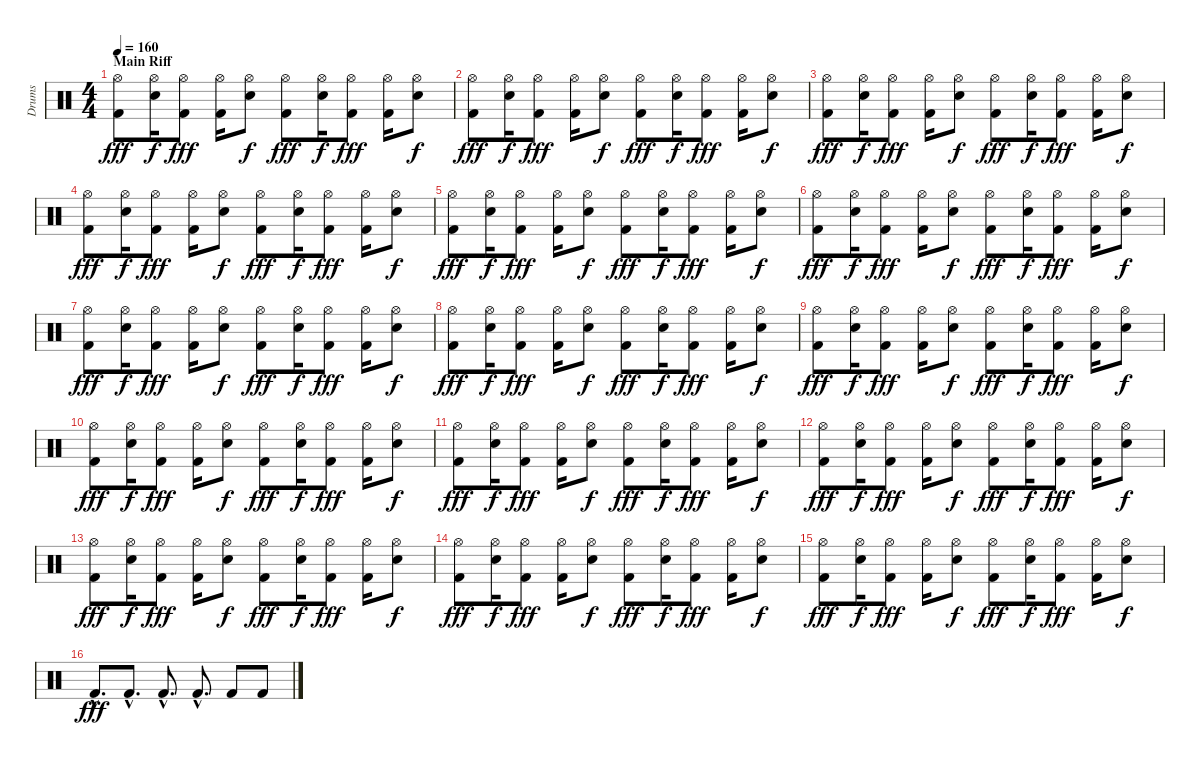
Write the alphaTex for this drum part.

\track ("Drums" "Drums") {instrument percussion}
\staff {score}
\articulation defaults
\ts (4 4)
\section ("" "Main Riff")
\tempo 160
\clef neutral
\ks c
("Hi-Hat (open)" "Kick (hit) 2").8{dy fff} ("Hi-Hat (open)" "Electric Snare (hit)").16{dy f} ("Hi-Hat (open)" "Kick (hit) 2").8{dy fff} ("Hi-Hat (open)" "Kick (hit) 2").16 ("Hi-Hat (open)" "Electric Snare (hit)").8{dy f} ("Hi-Hat (open)" "Kick (hit) 2").8{dy fff} ("Hi-Hat (open)" "Electric Snare (hit)").16{dy f} ("Hi-Hat (open)" "Kick (hit) 2").8{dy fff} ("Hi-Hat (open)" "Kick (hit) 2").16 ("Hi-Hat (open)" "Electric Snare (hit)").8{dy f} |
("Hi-Hat (open)" "Kick (hit) 2").8{dy fff} ("Hi-Hat (open)" "Electric Snare (hit)").16{dy f} ("Hi-Hat (open)" "Kick (hit) 2").8{dy fff} ("Hi-Hat (open)" "Kick (hit) 2").16 ("Hi-Hat (open)" "Electric Snare (hit)").8{dy f} ("Hi-Hat (open)" "Kick (hit) 2").8{dy fff} ("Hi-Hat (open)" "Electric Snare (hit)").16{dy f} ("Hi-Hat (open)" "Kick (hit) 2").8{dy fff} ("Hi-Hat (open)" "Kick (hit) 2").16 ("Hi-Hat (open)" "Electric Snare (hit)").8{dy f} |
("Hi-Hat (open)" "Kick (hit) 2").8{dy fff} ("Hi-Hat (open)" "Electric Snare (hit)").16{dy f} ("Hi-Hat (open)" "Kick (hit) 2").8{dy fff} ("Hi-Hat (open)" "Kick (hit) 2").16 ("Hi-Hat (open)" "Electric Snare (hit)").8{dy f} ("Hi-Hat (open)" "Kick (hit) 2").8{dy fff} ("Hi-Hat (open)" "Electric Snare (hit)").16{dy f} ("Hi-Hat (open)" "Kick (hit) 2").8{dy fff} ("Hi-Hat (open)" "Kick (hit) 2").16 ("Hi-Hat (open)" "Electric Snare (hit)").8{dy f} |
("Hi-Hat (open)" "Kick (hit) 2").8{dy fff} ("Hi-Hat (open)" "Electric Snare (hit)").16{dy f} ("Hi-Hat (open)" "Kick (hit) 2").8{dy fff} ("Hi-Hat (open)" "Kick (hit) 2").16 ("Hi-Hat (open)" "Electric Snare (hit)").8{dy f} ("Hi-Hat (open)" "Kick (hit) 2").8{dy fff} ("Hi-Hat (open)" "Electric Snare (hit)").16{dy f} ("Hi-Hat (open)" "Kick (hit) 2").8{dy fff} ("Hi-Hat (open)" "Kick (hit) 2").16 ("Hi-Hat (open)" "Electric Snare (hit)").8{dy f} |
("Hi-Hat (open)" "Kick (hit) 2").8{dy fff} ("Hi-Hat (open)" "Electric Snare (hit)").16{dy f} ("Hi-Hat (open)" "Kick (hit) 2").8{dy fff} ("Hi-Hat (open)" "Kick (hit) 2").16 ("Hi-Hat (open)" "Electric Snare (hit)").8{dy f} ("Hi-Hat (open)" "Kick (hit) 2").8{dy fff} ("Hi-Hat (open)" "Electric Snare (hit)").16{dy f} ("Hi-Hat (open)" "Kick (hit) 2").8{dy fff} ("Hi-Hat (open)" "Kick (hit) 2").16 ("Hi-Hat (open)" "Electric Snare (hit)").8{dy f} |
("Hi-Hat (open)" "Kick (hit) 2").8{dy fff} ("Hi-Hat (open)" "Electric Snare (hit)").16{dy f} ("Hi-Hat (open)" "Kick (hit) 2").8{dy fff} ("Hi-Hat (open)" "Kick (hit) 2").16 ("Hi-Hat (open)" "Electric Snare (hit)").8{dy f} ("Hi-Hat (open)" "Kick (hit) 2").8{dy fff} ("Hi-Hat (open)" "Electric Snare (hit)").16{dy f} ("Hi-Hat (open)" "Kick (hit) 2").8{dy fff} ("Hi-Hat (open)" "Kick (hit) 2").16 ("Hi-Hat (open)" "Electric Snare (hit)").8{dy f} |
("Hi-Hat (open)" "Kick (hit) 2").8{dy fff} ("Hi-Hat (open)" "Electric Snare (hit)").16{dy f} ("Hi-Hat (open)" "Kick (hit) 2").8{dy fff} ("Hi-Hat (open)" "Kick (hit) 2").16 ("Hi-Hat (open)" "Electric Snare (hit)").8{dy f} ("Hi-Hat (open)" "Kick (hit) 2").8{dy fff} ("Hi-Hat (open)" "Electric Snare (hit)").16{dy f} ("Hi-Hat (open)" "Kick (hit) 2").8{dy fff} ("Hi-Hat (open)" "Kick (hit) 2").16 ("Hi-Hat (open)" "Electric Snare (hit)").8{dy f} |
("Hi-Hat (open)" "Kick (hit) 2").8{dy fff} ("Hi-Hat (open)" "Electric Snare (hit)").16{dy f} ("Hi-Hat (open)" "Kick (hit) 2").8{dy fff} ("Hi-Hat (open)" "Kick (hit) 2").16 ("Hi-Hat (open)" "Electric Snare (hit)").8{dy f} ("Hi-Hat (open)" "Kick (hit) 2").8{dy fff} ("Hi-Hat (open)" "Electric Snare (hit)").16{dy f} ("Hi-Hat (open)" "Kick (hit) 2").8{dy fff} ("Hi-Hat (open)" "Kick (hit) 2").16 ("Hi-Hat (open)" "Electric Snare (hit)").8{dy f} |
("Hi-Hat (open)" "Kick (hit) 2").8{dy fff} ("Hi-Hat (open)" "Electric Snare (hit)").16{dy f} ("Hi-Hat (open)" "Kick (hit) 2").8{dy fff} ("Hi-Hat (open)" "Kick (hit) 2").16 ("Hi-Hat (open)" "Electric Snare (hit)").8{dy f} ("Hi-Hat (open)" "Kick (hit) 2").8{dy fff} ("Hi-Hat (open)" "Electric Snare (hit)").16{dy f} ("Hi-Hat (open)" "Kick (hit) 2").8{dy fff} ("Hi-Hat (open)" "Kick (hit) 2").16 ("Hi-Hat (open)" "Electric Snare (hit)").8{dy f} |
("Hi-Hat (open)" "Kick (hit) 2").8{dy fff} ("Hi-Hat (open)" "Electric Snare (hit)").16{dy f} ("Hi-Hat (open)" "Kick (hit) 2").8{dy fff} ("Hi-Hat (open)" "Kick (hit) 2").16 ("Hi-Hat (open)" "Electric Snare (hit)").8{dy f} ("Hi-Hat (open)" "Kick (hit) 2").8{dy fff} ("Hi-Hat (open)" "Electric Snare (hit)").16{dy f} ("Hi-Hat (open)" "Kick (hit) 2").8{dy fff} ("Hi-Hat (open)" "Kick (hit) 2").16 ("Hi-Hat (open)" "Electric Snare (hit)").8{dy f} |
("Hi-Hat (open)" "Kick (hit) 2").8{dy fff} ("Hi-Hat (open)" "Electric Snare (hit)").16{dy f} ("Hi-Hat (open)" "Kick (hit) 2").8{dy fff} ("Hi-Hat (open)" "Kick (hit) 2").16 ("Hi-Hat (open)" "Electric Snare (hit)").8{dy f} ("Hi-Hat (open)" "Kick (hit) 2").8{dy fff} ("Hi-Hat (open)" "Electric Snare (hit)").16{dy f} ("Hi-Hat (open)" "Kick (hit) 2").8{dy fff} ("Hi-Hat (open)" "Kick (hit) 2").16 ("Hi-Hat (open)" "Electric Snare (hit)").8{dy f} |
("Hi-Hat (open)" "Kick (hit) 2").8{dy fff} ("Hi-Hat (open)" "Electric Snare (hit)").16{dy f} ("Hi-Hat (open)" "Kick (hit) 2").8{dy fff} ("Hi-Hat (open)" "Kick (hit) 2").16 ("Hi-Hat (open)" "Electric Snare (hit)").8{dy f} ("Hi-Hat (open)" "Kick (hit) 2").8{dy fff} ("Hi-Hat (open)" "Electric Snare (hit)").16{dy f} ("Hi-Hat (open)" "Kick (hit) 2").8{dy fff} ("Hi-Hat (open)" "Kick (hit) 2").16 ("Hi-Hat (open)" "Electric Snare (hit)").8{dy f} |
("Hi-Hat (open)" "Kick (hit) 2").8{dy fff} ("Hi-Hat (open)" "Electric Snare (hit)").16{dy f} ("Hi-Hat (open)" "Kick (hit) 2").8{dy fff} ("Hi-Hat (open)" "Kick (hit) 2").16 ("Hi-Hat (open)" "Electric Snare (hit)").8{dy f} ("Hi-Hat (open)" "Kick (hit) 2").8{dy fff} ("Hi-Hat (open)" "Electric Snare (hit)").16{dy f} ("Hi-Hat (open)" "Kick (hit) 2").8{dy fff} ("Hi-Hat (open)" "Kick (hit) 2").16 ("Hi-Hat (open)" "Electric Snare (hit)").8{dy f} |
("Hi-Hat (open)" "Kick (hit) 2").8{dy fff} ("Hi-Hat (open)" "Electric Snare (hit)").16{dy f} ("Hi-Hat (open)" "Kick (hit) 2").8{dy fff} ("Hi-Hat (open)" "Kick (hit) 2").16 ("Hi-Hat (open)" "Electric Snare (hit)").8{dy f} ("Hi-Hat (open)" "Kick (hit) 2").8{dy fff} ("Hi-Hat (open)" "Electric Snare (hit)").16{dy f} ("Hi-Hat (open)" "Kick (hit) 2").8{dy fff} ("Hi-Hat (open)" "Kick (hit) 2").16 ("Hi-Hat (open)" "Electric Snare (hit)").8{dy f} |
("Hi-Hat (open)" "Kick (hit) 2").8{dy fff} ("Hi-Hat (open)" "Electric Snare (hit)").16{dy f} ("Hi-Hat (open)" "Kick (hit) 2").8{dy fff} ("Hi-Hat (open)" "Kick (hit) 2").16 ("Hi-Hat (open)" "Electric Snare (hit)").8{dy f} ("Hi-Hat (open)" "Kick (hit) 2").8{dy fff} ("Hi-Hat (open)" "Electric Snare (hit)").16{dy f} ("Hi-Hat (open)" "Kick (hit) 2").8{dy fff} ("Hi-Hat (open)" "Kick (hit) 2").16 ("Hi-Hat (open)" "Electric Snare (hit)").8{dy f} |
"Kick (hit) 2"{hac}.8{d dy fff} "Kick (hit) 2"{hac}.8{d} "Kick (hit) 2"{hac}.8{d} "Kick (hit) 2"{hac}.8{d} "Kick (hit) 2".8 "Kick (hit) 2".8
